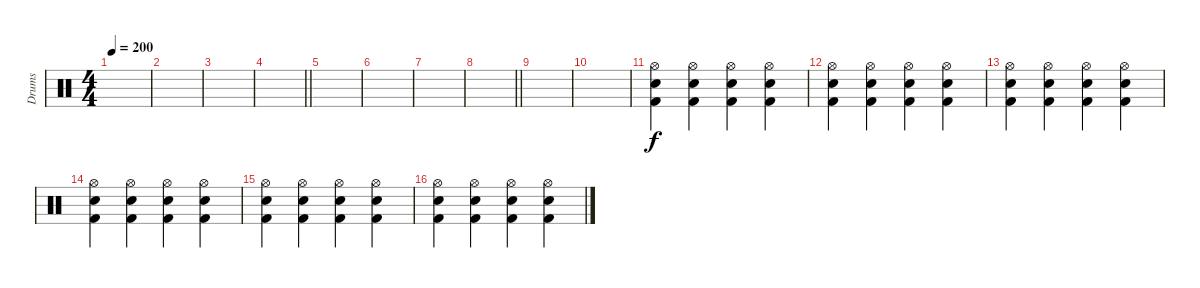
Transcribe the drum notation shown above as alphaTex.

\track ("Drums" "Drums") {instrument percussion}
\staff {score}
\articulation defaults
\ts (4 4)
\tempo 200
\clef neutral
\ks c
|
|
|
\barLineRight lightlight
|
|
|
|
\barLineRight lightlight
|
|
|
("Hi-Hat (open)" "Electric Snare (hit)" "Kick (hit) 2").4 ("Hi-Hat (open)" "Electric Snare (hit)" "Kick (hit) 2").4 ("Hi-Hat (open)" "Electric Snare (hit)" "Kick (hit) 2").4 ("Hi-Hat (open)" "Electric Snare (hit)" "Kick (hit) 2").4 |
("Hi-Hat (open)" "Electric Snare (hit)" "Kick (hit) 2").4 ("Hi-Hat (open)" "Electric Snare (hit)" "Kick (hit) 2").4 ("Hi-Hat (open)" "Electric Snare (hit)" "Kick (hit) 2").4 ("Hi-Hat (open)" "Electric Snare (hit)" "Kick (hit) 2").4 |
("Hi-Hat (open)" "Electric Snare (hit)" "Kick (hit) 2").4 ("Hi-Hat (open)" "Electric Snare (hit)" "Kick (hit) 2").4 ("Hi-Hat (open)" "Electric Snare (hit)" "Kick (hit) 2").4 ("Hi-Hat (open)" "Electric Snare (hit)" "Kick (hit) 2").4 |
("Hi-Hat (open)" "Electric Snare (hit)" "Kick (hit) 2").4 ("Hi-Hat (open)" "Electric Snare (hit)" "Kick (hit) 2").4 ("Hi-Hat (open)" "Electric Snare (hit)" "Kick (hit) 2").4 ("Hi-Hat (open)" "Electric Snare (hit)" "Kick (hit) 2").4 |
("Hi-Hat (open)" "Electric Snare (hit)" "Kick (hit) 2").4 ("Hi-Hat (open)" "Electric Snare (hit)" "Kick (hit) 2").4 ("Hi-Hat (open)" "Electric Snare (hit)" "Kick (hit) 2").4 ("Hi-Hat (open)" "Electric Snare (hit)" "Kick (hit) 2").4 |
("Hi-Hat (open)" "Electric Snare (hit)" "Kick (hit) 2").4 ("Hi-Hat (open)" "Electric Snare (hit)" "Kick (hit) 2").4 ("Hi-Hat (open)" "Electric Snare (hit)" "Kick (hit) 2").4 ("Hi-Hat (open)" "Electric Snare (hit)" "Kick (hit) 2").4
